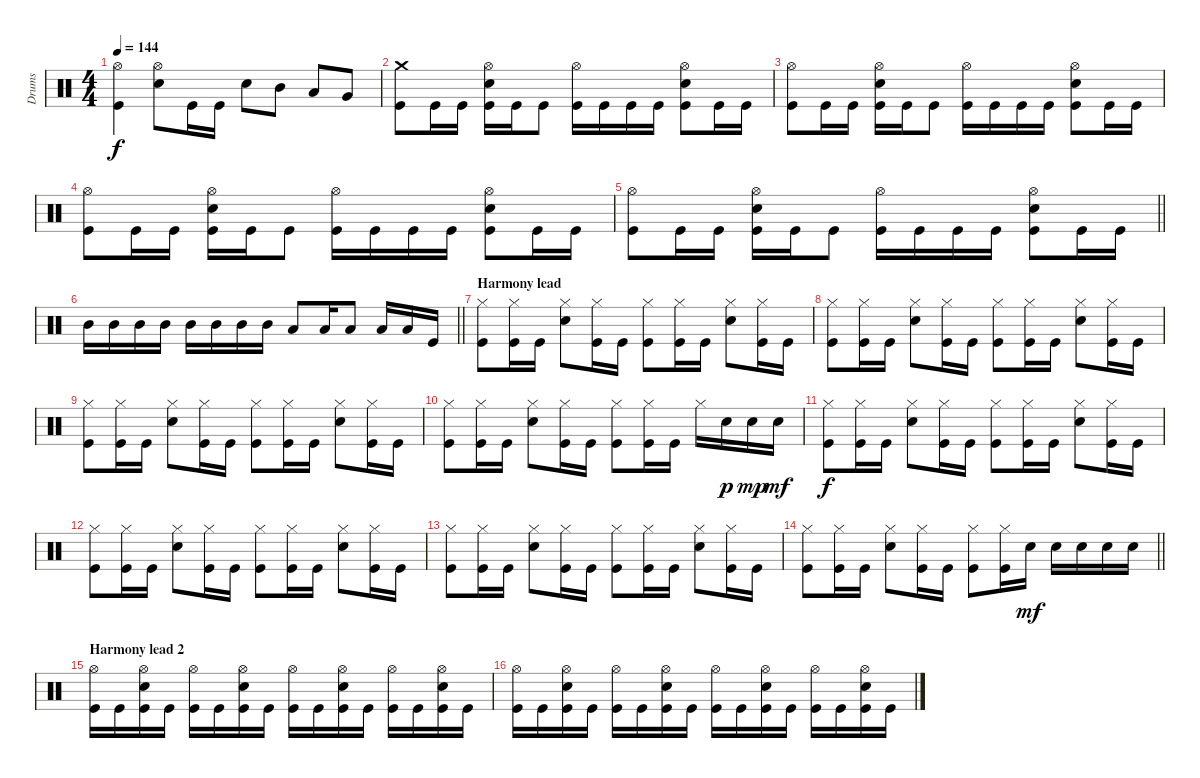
\track ("Drums" "Drums") {instrument percussion}
\staff {score}
\articulation defaults
\ts (4 4)
\tempo 144
\clef neutral
\ks c
("Hi-Hat (open)" "Kick (hit)").4{dy f} ("Hi-Hat (open)" "Snare (hit) 2").8 "Kick (hit)".16 "Kick (hit)".16 "Snare (hit) 2".8 "Mid Tom (hit)".8 "Low Tom (hit)".8 "Very Low Tom (hit)".8 |
("Crash medium (hit)" "Kick (hit)").8 "Kick (hit)".16 "Kick (hit)".16 ("Hi-Hat (open)" "Electric Snare (hit)" "Kick (hit)").16 "Kick (hit)".16 "Kick (hit)".8 ("Hi-Hat (open)" "Kick (hit)").16 "Kick (hit)".16 "Kick (hit)".16 "Kick (hit)".16 ("Hi-Hat (open)" "Electric Snare (hit)" "Kick (hit)").8 "Kick (hit)".16 "Kick (hit)".16 |
("Hi-Hat (open)" "Kick (hit)").8 "Kick (hit)".16 "Kick (hit)".16 ("Hi-Hat (open)" "Electric Snare (hit)" "Kick (hit)").16 "Kick (hit)".16 "Kick (hit)".8 ("Hi-Hat (open)" "Kick (hit)").16 "Kick (hit)".16 "Kick (hit)".16 "Kick (hit)".16 ("Hi-Hat (open)" "Electric Snare (hit)" "Kick (hit)").8 "Kick (hit)".16 "Kick (hit)".16 |
("Hi-Hat (open)" "Kick (hit)").8 "Kick (hit)".16 "Kick (hit)".16 ("Hi-Hat (open)" "Electric Snare (hit)" "Kick (hit)").16 "Kick (hit)".16 "Kick (hit)".8 ("Hi-Hat (open)" "Kick (hit)").16 "Kick (hit)".16 "Kick (hit)".16 "Kick (hit)".16 ("Hi-Hat (open)" "Electric Snare (hit)" "Kick (hit)").8 "Kick (hit)".16 "Kick (hit)".16 |
\barLineRight lightlight
("Hi-Hat (open)" "Kick (hit)").8 "Kick (hit)".16 "Kick (hit)".16 ("Hi-Hat (open)" "Electric Snare (hit)" "Kick (hit)").16 "Kick (hit)".16 "Kick (hit)".8 ("Hi-Hat (open)" "Kick (hit)").16 "Kick (hit)".16 "Kick (hit)".16 "Kick (hit)".16 ("Hi-Hat (open)" "Electric Snare (hit)" "Kick (hit)").8 "Kick (hit)".16 "Kick (hit)".16 |
\barLineRight lightlight "Mid Tom (hit)".16 "Mid Tom (hit)".16 "Mid Tom (hit)".16 "Mid Tom (hit)".16 "Mid Tom (hit)".16 "Mid Tom (hit)".16 "Mid Tom (hit)".16 "Mid Tom (hit)".16 "Low Tom (hit)".8 "Low Tom (hit)".16 "Low Tom (hit)".8 "Low Tom (hit)".16 "Low Tom (hit)".16 "Kick (hit)".16
|
\section ("" "Harmony lead")
("Hi-Hat (closed)" "Kick (hit)").8 ("Hi-Hat (closed)" "Kick (hit)").16 "Kick (hit)".16 ("Hi-Hat (closed)" "Snare (hit) 2").8 ("Hi-Hat (closed)" "Kick (hit)").16 "Kick (hit)".16 ("Hi-Hat (closed)" "Kick (hit)").8 ("Hi-Hat (closed)" "Kick (hit)").16 "Kick (hit)".16 ("Hi-Hat (closed)" "Snare (hit) 2").8 ("Hi-Hat (closed)" "Kick (hit)").16 "Kick (hit)".16 |
("Hi-Hat (closed)" "Kick (hit)").8 ("Hi-Hat (closed)" "Kick (hit)").16 "Kick (hit)".16 ("Hi-Hat (closed)" "Snare (hit) 2").8 ("Hi-Hat (closed)" "Kick (hit)").16 "Kick (hit)".16 ("Hi-Hat (closed)" "Kick (hit)").8 ("Hi-Hat (closed)" "Kick (hit)").16 "Kick (hit)".16 ("Hi-Hat (closed)" "Snare (hit) 2").8 ("Hi-Hat (closed)" "Kick (hit)").16 "Kick (hit)".16 |
("Hi-Hat (closed)" "Kick (hit)").8 ("Hi-Hat (closed)" "Kick (hit)").16 "Kick (hit)".16 ("Hi-Hat (closed)" "Snare (hit) 2").8 ("Hi-Hat (closed)" "Kick (hit)").16 "Kick (hit)".16 ("Hi-Hat (closed)" "Kick (hit)").8 ("Hi-Hat (closed)" "Kick (hit)").16 "Kick (hit)".16 ("Hi-Hat (closed)" "Snare (hit) 2").8 ("Hi-Hat (closed)" "Kick (hit)").16 "Kick (hit)".16 |
("Hi-Hat (closed)" "Kick (hit)").8 ("Hi-Hat (closed)" "Kick (hit)").16 "Kick (hit)".16 ("Hi-Hat (closed)" "Snare (hit) 2").8 ("Hi-Hat (closed)" "Kick (hit)").16 "Kick (hit)".16 ("Hi-Hat (closed)" "Kick (hit)").8 ("Hi-Hat (closed)" "Kick (hit)").16 "Kick (hit)".16 "Hi-Hat (closed)".16 "Snare (hit) 2".16{dy p} "Snare (hit) 2".16{dy mp} "Snare (hit) 2".16{dy mf} |
("Hi-Hat (closed)" "Kick (hit)").8{dy f} ("Hi-Hat (closed)" "Kick (hit)").16 "Kick (hit)".16 ("Hi-Hat (closed)" "Snare (hit) 2").8 ("Hi-Hat (closed)" "Kick (hit)").16 "Kick (hit)".16 ("Hi-Hat (closed)" "Kick (hit)").8 ("Hi-Hat (closed)" "Kick (hit)").16 "Kick (hit)".16 ("Hi-Hat (closed)" "Snare (hit) 2").8 ("Hi-Hat (closed)" "Kick (hit)").16 "Kick (hit)".16 |
("Hi-Hat (closed)" "Kick (hit)").8 ("Hi-Hat (closed)" "Kick (hit)").16 "Kick (hit)".16 ("Hi-Hat (closed)" "Snare (hit) 2").8 ("Hi-Hat (closed)" "Kick (hit)").16 "Kick (hit)".16 ("Hi-Hat (closed)" "Kick (hit)").8 ("Hi-Hat (closed)" "Kick (hit)").16 "Kick (hit)".16 ("Hi-Hat (closed)" "Snare (hit) 2").8 ("Hi-Hat (closed)" "Kick (hit)").16 "Kick (hit)".16 |
("Hi-Hat (closed)" "Kick (hit)").8 ("Hi-Hat (closed)" "Kick (hit)").16 "Kick (hit)".16 ("Hi-Hat (closed)" "Snare (hit) 2").8 ("Hi-Hat (closed)" "Kick (hit)").16 "Kick (hit)".16 ("Hi-Hat (closed)" "Kick (hit)").8 ("Hi-Hat (closed)" "Kick (hit)").16 "Kick (hit)".16 ("Hi-Hat (closed)" "Snare (hit) 2").8 ("Hi-Hat (closed)" "Kick (hit)").16 "Kick (hit)".16 |
\barLineRight lightlight
("Hi-Hat (closed)" "Kick (hit)").8 ("Hi-Hat (closed)" "Kick (hit)").16 "Kick (hit)".16 ("Hi-Hat (closed)" "Snare (hit) 2").8 ("Hi-Hat (closed)" "Kick (hit)").16 "Kick (hit)".16 ("Hi-Hat (closed)" "Kick (hit)").8 ("Hi-Hat (closed)" "Kick (hit)").16 "Snare (hit) 2".16{dy mf} "Snare (hit) 2".16 "Snare (hit) 2".16 "Snare (hit) 2".16 "Snare (hit) 2".16 |
\section ("" "Harmony lead 2")
("Hi-Hat (open)" "Kick (hit)").16 "Kick (hit)".16 ("Hi-Hat (open)" "Snare (hit) 2" "Kick (hit)").16 "Kick (hit)".16 ("Hi-Hat (open)" "Kick (hit)").16 "Kick (hit)".16 ("Hi-Hat (open)" "Snare (hit) 2" "Kick (hit)").16 "Kick (hit)".16 ("Hi-Hat (open)" "Kick (hit)").16 "Kick (hit)".16 ("Hi-Hat (open)" "Snare (hit) 2" "Kick (hit)").16 "Kick (hit)".16 ("Hi-Hat (open)" "Kick (hit)").16 "Kick (hit)".16 ("Hi-Hat (open)" "Snare (hit) 2" "Kick (hit)").16 "Kick (hit)".16 |
("Hi-Hat (open)" "Kick (hit)").16 "Kick (hit)".16 ("Hi-Hat (open)" "Snare (hit) 2" "Kick (hit)").16 "Kick (hit)".16 ("Hi-Hat (open)" "Kick (hit)").16 "Kick (hit)".16 ("Hi-Hat (open)" "Snare (hit) 2" "Kick (hit)").16 "Kick (hit)".16 ("Hi-Hat (open)" "Kick (hit)").16 "Kick (hit)".16 ("Hi-Hat (open)" "Snare (hit) 2" "Kick (hit)").16 "Kick (hit)".16 ("Hi-Hat (open)" "Kick (hit)").16 "Kick (hit)".16 ("Hi-Hat (open)" "Snare (hit) 2" "Kick (hit)").16 "Kick (hit)".16
